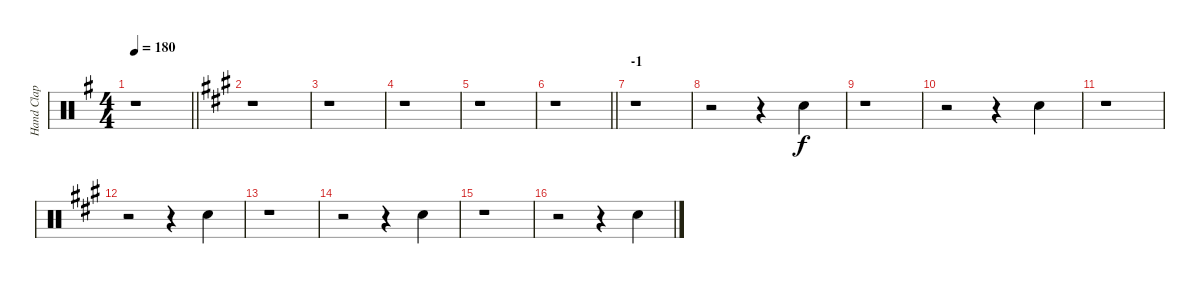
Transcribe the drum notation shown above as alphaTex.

\track ("Hand Clap" "Hand Clap") {instrument percussion}
\staff {score}
\articulation defaults
\ts (4 4)
\tempo 180
\clef neutral
\barLineRight lightlight
\ks g
r.1{dy f} |
\section ("" "")
\ks a
r.1 |
r.1 |
r.1 |
r.1 |
\barLineRight lightlight
r.1 |
\section ("" "-1")
r.1 |
r.2 r.4 "Hand Clap (hit)".4 |
r.1 |
r.2 r.4 "Hand Clap (hit)".4 |
r.1 |
r.2 r.4 "Hand Clap (hit)".4 |
r.1 |
r.2 r.4 "Hand Clap (hit)".4 |
r.1 |
r.2 r.4 "Hand Clap (hit)".4
